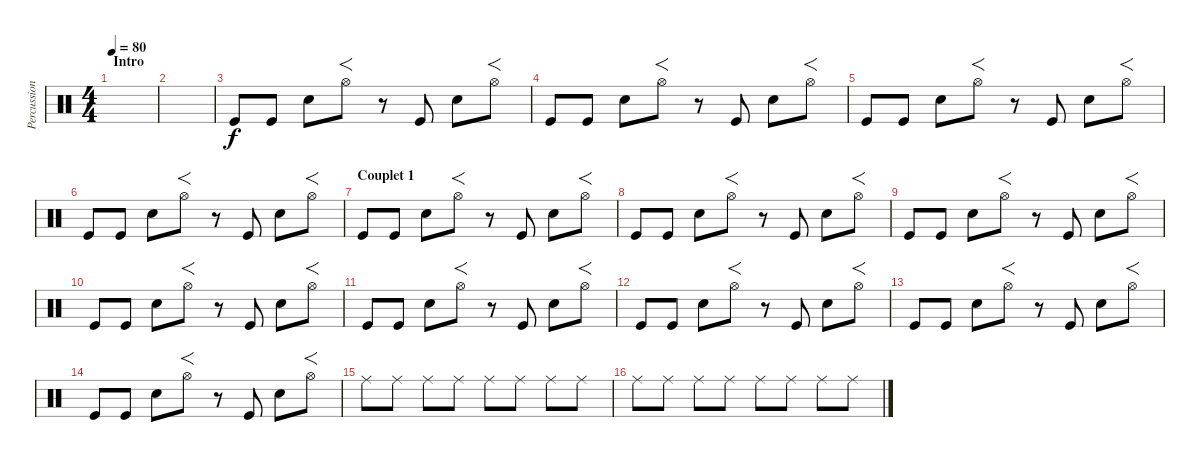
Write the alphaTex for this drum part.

\track ("Percussions" "Percussion") {instrument percussion}
\staff {score}
\articulation defaults
\ts (4 4)
\section ("" "Intro")
\tempo 80
\clef neutral
\ks c
|
|
"Kick (hit)".8 "Kick (hit)".8 "Electric Snare (hit)".8 "Hi-Hat (open)".8{f} r.8 "Kick (hit)".8 "Electric Snare (hit)".8 "Hi-Hat (open)".8{f} |
"Kick (hit)".8 "Kick (hit)".8 "Electric Snare (hit)".8 "Hi-Hat (open)".8{f} r.8 "Kick (hit)".8 "Electric Snare (hit)".8 "Hi-Hat (open)".8{f} |
"Kick (hit)".8 "Kick (hit)".8 "Electric Snare (hit)".8 "Hi-Hat (open)".8{f} r.8 "Kick (hit)".8 "Electric Snare (hit)".8 "Hi-Hat (open)".8{f} |
"Kick (hit)".8 "Kick (hit)".8 "Electric Snare (hit)".8 "Hi-Hat (open)".8{f} r.8 "Kick (hit)".8 "Electric Snare (hit)".8 "Hi-Hat (open)".8{f} |
\section ("" "Couplet 1")
"Kick (hit)".8 "Kick (hit)".8 "Electric Snare (hit)".8 "Hi-Hat (open)".8{f} r.8 "Kick (hit)".8 "Electric Snare (hit)".8 "Hi-Hat (open)".8{f} |
"Kick (hit)".8 "Kick (hit)".8 "Electric Snare (hit)".8 "Hi-Hat (open)".8{f} r.8 "Kick (hit)".8 "Electric Snare (hit)".8 "Hi-Hat (open)".8{f} |
"Kick (hit)".8 "Kick (hit)".8 "Electric Snare (hit)".8 "Hi-Hat (open)".8{f} r.8 "Kick (hit)".8 "Electric Snare (hit)".8 "Hi-Hat (open)".8{f} |
"Kick (hit)".8 "Kick (hit)".8 "Electric Snare (hit)".8 "Hi-Hat (open)".8{f} r.8 "Kick (hit)".8 "Electric Snare (hit)".8 "Hi-Hat (open)".8{f} |
"Kick (hit)".8 "Kick (hit)".8 "Electric Snare (hit)".8 "Hi-Hat (open)".8{f} r.8 "Kick (hit)".8 "Electric Snare (hit)".8 "Hi-Hat (open)".8{f} |
"Kick (hit)".8 "Kick (hit)".8 "Electric Snare (hit)".8 "Hi-Hat (open)".8{f} r.8 "Kick (hit)".8 "Electric Snare (hit)".8 "Hi-Hat (open)".8{f} |
"Kick (hit)".8 "Kick (hit)".8 "Electric Snare (hit)".8 "Hi-Hat (open)".8{f} r.8 "Kick (hit)".8 "Electric Snare (hit)".8 "Hi-Hat (open)".8{f} |
"Kick (hit)".8 "Kick (hit)".8 "Electric Snare (hit)".8 "Hi-Hat (open)".8{f} r.8 "Kick (hit)".8 "Electric Snare (hit)".8 "Hi-Hat (open)".8{f} |
"Ride (middle)".8 "Ride (middle)".8 "Ride (middle)".8 "Ride (middle)".8 "Ride (middle)".8 "Ride (middle)".8 "Ride (middle)".8 "Ride (middle)".8 |
"Ride (middle)".8 "Ride (middle)".8 "Ride (middle)".8 "Ride (middle)".8 "Ride (middle)".8 "Ride (middle)".8 "Ride (middle)".8 "Ride (middle)".8
